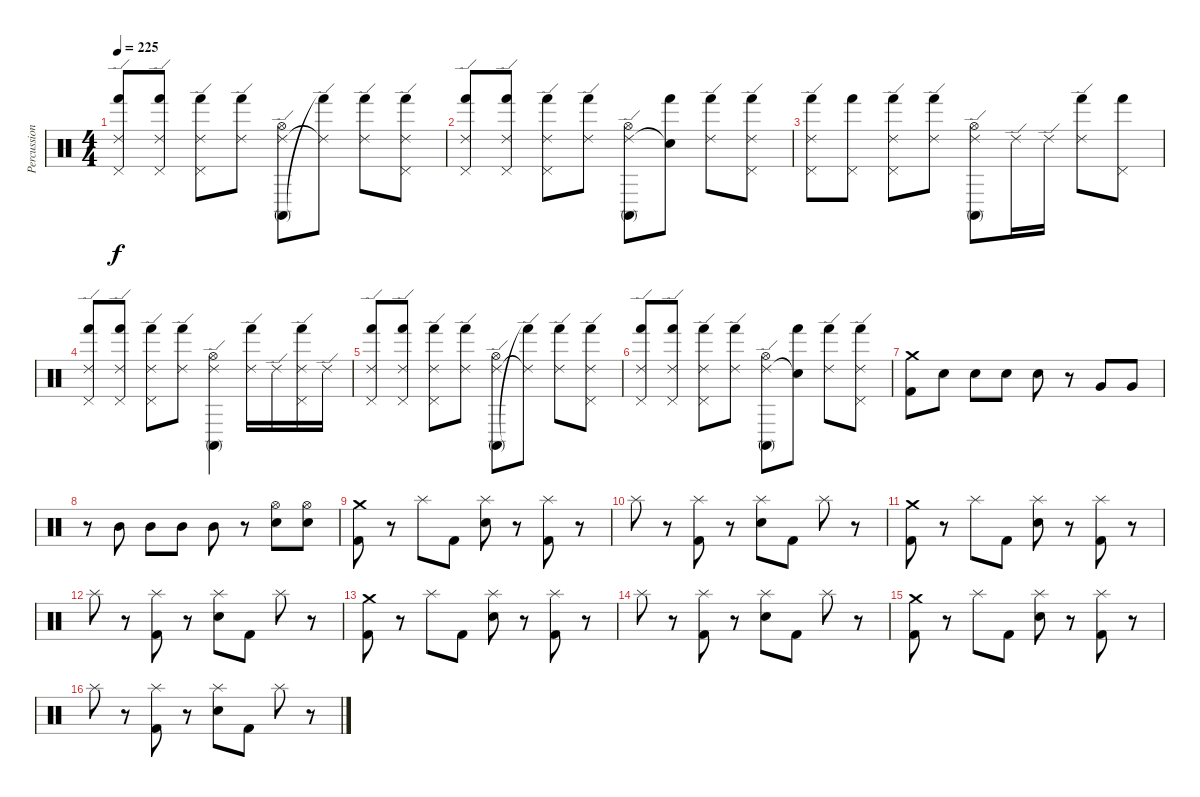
\track ("Percussion" "Percussion") {instrument percussion}
\staff {score}
\articulation defaults
\ts (4 4)
\tempo 225
\clef neutral
\ks c
("Ride (edge) 2" "Hand (hit)" "Pedal Hi-Hat (hit)").8{dy f} ("Ride (edge) 2" "Hand (hit)" "Pedal Hi-Hat (hit)").8 ("Ride (edge) 2" "Hand (hit)" "Pedal Hi-Hat (hit)").8 ("Ride (edge) 2" "Hand (hit)").8 ("Ride (edge) 2" "Conga high (mute)" "Hi-Hat (open)").8 ("Ride (edge) 2"{t} "Hand (hit)"{t}).8 ("Ride (edge) 2" "Hand (hit)").8 ("Ride (edge) 2" "Hand (hit)" "Pedal Hi-Hat (hit)").8 |
("Ride (edge) 2" "Hand (hit)" "Pedal Hi-Hat (hit)").8 ("Ride (edge) 2" "Hand (hit)" "Pedal Hi-Hat (hit)").8 ("Ride (edge) 2" "Hand (hit)" "Pedal Hi-Hat (hit)").8 ("Ride (edge) 2" "Hand (hit)").8 ("Ride (edge) 2" "Conga high (mute)" "Hi-Hat (open)").8 ("Snare (hit)"{t} "Hand (hit)").8 ("Ride (edge) 2" "Hand (hit)").8 ("Ride (edge) 2" "Hand (hit)" "Pedal Hi-Hat (hit)").8 |
("Ride (edge) 2" "Hand (hit)" "Pedal Hi-Hat (hit)").8 ("Hand (hit)" "Pedal Hi-Hat (hit)").8 ("Ride (edge) 2" "Hand (hit)" "Pedal Hi-Hat (hit)").8 ("Ride (edge) 2" "Hand (hit)").8 ("Ride (edge) 2" "Conga high (mute)" "Hi-Hat (open)").8 "Ride (edge) 2".16 "Ride (edge) 2".16 ("Ride (edge) 2" "Hand (hit)").8 ("Hand (hit)" "Pedal Hi-Hat (hit)").8 |
("Ride (edge) 2" "Hand (hit)" "Pedal Hi-Hat (hit)").8 ("Ride (edge) 2" "Hand (hit)" "Pedal Hi-Hat (hit)").8 ("Ride (edge) 2" "Hand (hit)" "Pedal Hi-Hat (hit)").8 ("Ride (edge) 2" "Hand (hit)").8 ("Ride (edge) 2" "Conga high (mute)" "Hi-Hat (open)").4 ("Ride (edge) 2" "Hand (hit)").16 "Ride (edge) 2".16 ("Ride (edge) 2" "Hand (hit)" "Pedal Hi-Hat (hit)").16 "Ride (edge) 2".16 |
("Ride (edge) 2" "Hand (hit)" "Pedal Hi-Hat (hit)").8 ("Ride (edge) 2" "Hand (hit)" "Pedal Hi-Hat (hit)").8 ("Ride (edge) 2" "Hand (hit)" "Pedal Hi-Hat (hit)").8 ("Ride (edge) 2" "Hand (hit)").8 ("Ride (edge) 2" "Conga high (mute)" "Hi-Hat (open)").8 ("Ride (edge) 2"{t} "Hand (hit)"{t}).8 ("Ride (edge) 2" "Hand (hit)").8 ("Ride (edge) 2" "Hand (hit)" "Pedal Hi-Hat (hit)").8 |
("Ride (edge) 2" "Hand (hit)" "Pedal Hi-Hat (hit)").8 ("Ride (edge) 2" "Hand (hit)" "Pedal Hi-Hat (hit)").8 ("Ride (edge) 2" "Hand (hit)" "Pedal Hi-Hat (hit)").8 ("Ride (edge) 2" "Hand (hit)").8 ("Ride (edge) 2" "Conga high (mute)" "Hi-Hat (open)").8 ("Snare (hit)"{t} "Hand (hit)").8 ("Ride (edge) 2" "Hand (hit)").8 ("Ride (edge) 2" "Hand (hit)" "Pedal Hi-Hat (hit)").8 |
("Crash medium (hit)" "Kick (hit) 2").8 "Electric Snare (hit)".8 "Electric Snare (hit)".8 "Electric Snare (hit)".8 "Electric Snare (hit)".8 r.8 "Very Low Tom (hit)".8 "Very Low Tom (hit)".8 |
r.8 "Mid Tom (hit)".8 "Mid Tom (hit)".8 "Mid Tom (hit)".8 "Mid Tom (hit)".8 r.8 ("Hi-Hat (open)" "Electric Snare (hit)").8 ("Hi-Hat (open)" "Electric Snare (hit)").8 |
("Crash medium (hit)" "Kick (hit) 2").8 r.8 "Splash (hit)".8 "Kick (hit) 2".8 ("Splash (hit)" "Electric Snare (hit)").8 r.8 ("Splash (hit)" "Kick (hit) 2").8 r.8 |
"Splash (hit)".8 r.8 ("Splash (hit)" "Kick (hit) 2").8 r.8 ("Splash (hit)" "Electric Snare (hit)").8 "Kick (hit) 2".8 "Splash (hit)".8 r.8 |
("Crash medium (hit)" "Kick (hit) 2").8 r.8 "Splash (hit)".8 "Kick (hit) 2".8 ("Splash (hit)" "Electric Snare (hit)").8 r.8 ("Splash (hit)" "Kick (hit) 2").8 r.8 |
"Splash (hit)".8 r.8 ("Splash (hit)" "Kick (hit) 2").8 r.8 ("Splash (hit)" "Electric Snare (hit)").8 "Kick (hit) 2".8 "Splash (hit)".8 r.8 |
("Crash medium (hit)" "Kick (hit) 2").8 r.8 "Splash (hit)".8 "Kick (hit) 2".8 ("Splash (hit)" "Electric Snare (hit)").8 r.8 ("Splash (hit)" "Kick (hit) 2").8 r.8 |
"Splash (hit)".8 r.8 ("Splash (hit)" "Kick (hit) 2").8 r.8 ("Splash (hit)" "Electric Snare (hit)").8 "Kick (hit) 2".8 "Splash (hit)".8 r.8 |
("Crash medium (hit)" "Kick (hit) 2").8 r.8 "Splash (hit)".8 "Kick (hit) 2".8 ("Splash (hit)" "Electric Snare (hit)").8 r.8 ("Splash (hit)" "Kick (hit) 2").8 r.8 |
"Splash (hit)".8 r.8 ("Splash (hit)" "Kick (hit) 2").8 r.8 ("Splash (hit)" "Electric Snare (hit)").8 "Kick (hit) 2".8 "Splash (hit)".8 r.8
